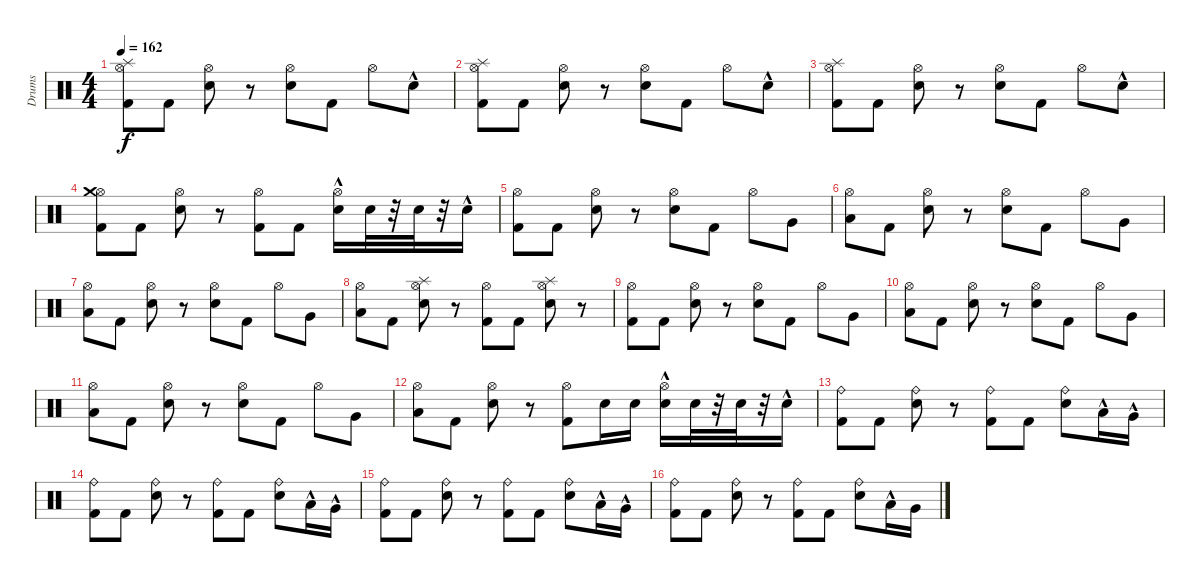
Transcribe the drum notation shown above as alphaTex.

\track ("Drums" "Drums") {instrument percussion}
\staff {score}
\articulation defaults
\ts (4 4)
\tempo 162
\clef neutral
\ks c
("Hi-Hat (open)" "Kick (hit) 2" "Splash (hit)").8{dy f} "Kick (hit) 2".8 ("Hi-Hat (open)" "Electric Snare (hit)").8 r.8 ("Hi-Hat (open)" "Electric Snare (hit)").8 "Kick (hit) 2".8 "Hi-Hat (open)".8 "Electric Snare (hit)"{hac}.8 |
("Hi-Hat (open)" "Kick (hit) 2" "Splash (hit)").8 "Kick (hit) 2".8 ("Hi-Hat (open)" "Electric Snare (hit)").8 r.8 ("Hi-Hat (open)" "Electric Snare (hit)").8 "Kick (hit) 2".8 "Hi-Hat (open)".8 "Electric Snare (hit)"{hac}.8 |
("Hi-Hat (open)" "Kick (hit) 2" "Splash (hit)").8 "Kick (hit) 2".8 ("Hi-Hat (open)" "Electric Snare (hit)").8 r.8 ("Hi-Hat (open)" "Electric Snare (hit)").8 "Kick (hit) 2".8 "Hi-Hat (open)".8 "Electric Snare (hit)"{hac}.8 |
("Hi-Hat (open)" "Kick (hit) 2" "Crash medium (hit)").8 "Kick (hit) 2".8 ("Hi-Hat (open)" "Electric Snare (hit)").8 r.8 ("Hi-Hat (open)" "Kick (hit) 2").8 "Kick (hit) 2".8 ("Hi-Hat (open)"{hac} "Electric Snare (hit)").16 "Electric Snare (hit)".32 r.32 "Electric Snare (hit)".32 r.32 "Electric Snare (hit)"{hac}.16 |
("Hi-Hat (open)" "Kick (hit) 2").8 "Kick (hit) 2".8 ("Hi-Hat (open)" "Electric Snare (hit)").8 r.8 ("Hi-Hat (open)" "Electric Snare (hit)").8 "Kick (hit) 2".8 "Hi-Hat (open)".8 "Very Low Tom (hit)".8 |
("Hi-Hat (open)" "Low Floor Tom (hit)").8 "Kick (hit) 2".8 ("Hi-Hat (open)" "Electric Snare (hit)").8 r.8 ("Hi-Hat (open)" "Electric Snare (hit)").8 "Kick (hit) 2".8 "Hi-Hat (open)".8 "Very Low Tom (hit)".8 |
("Hi-Hat (open)" "Low Floor Tom (hit)").8 "Kick (hit) 2".8 ("Hi-Hat (open)" "Electric Snare (hit)").8 r.8 ("Hi-Hat (open)" "Electric Snare (hit)").8 "Kick (hit) 2".8 "Hi-Hat (open)".8 "Very Low Tom (hit)".8 |
("Hi-Hat (open)" "Low Floor Tom (hit)").8 "Kick (hit) 2".8 ("Hi-Hat (open)" "Electric Snare (hit)" "Splash (hit)").8 r.8 ("Hi-Hat (open)" "Kick (hit) 2").8 "Kick (hit) 2".8 ("Hi-Hat (open)" "Electric Snare (hit)" "Splash (hit)").8 r.8 |
("Hi-Hat (open)" "Kick (hit) 2").8 "Kick (hit) 2".8 ("Hi-Hat (open)" "Electric Snare (hit)").8 r.8 ("Hi-Hat (open)" "Electric Snare (hit)").8 "Kick (hit) 2".8 "Hi-Hat (open)".8 "Very Low Tom (hit)".8 |
("Hi-Hat (open)" "Low Floor Tom (hit)").8 "Kick (hit) 2".8 ("Hi-Hat (open)" "Electric Snare (hit)").8 r.8 ("Hi-Hat (open)" "Electric Snare (hit)").8 "Kick (hit) 2".8 "Hi-Hat (open)".8 "Very Low Tom (hit)".8 |
("Hi-Hat (open)" "Low Floor Tom (hit)").8 "Kick (hit) 2".8 ("Hi-Hat (open)" "Electric Snare (hit)").8 r.8 ("Hi-Hat (open)" "Electric Snare (hit)").8 "Kick (hit) 2".8 "Hi-Hat (open)".8 "Very Low Tom (hit)".8 |
("Hi-Hat (open)" "Low Floor Tom (hit)").8 "Kick (hit) 2".8 ("Hi-Hat (open)" "Electric Snare (hit)").8 r.8 ("Hi-Hat (open)" "Kick (hit) 2").8 "Electric Snare (hit)".16 "Electric Snare (hit)".16 ("Hi-Hat (open)"{hac} "Electric Snare (hit)").16 "Electric Snare (hit)".32 r.32 "Electric Snare (hit)".32 r.32 "Electric Snare (hit)"{hac}.16 |
("Ride (bell)" "Kick (hit) 2").8 "Kick (hit) 2".8 ("Ride (bell)" "Electric Snare (hit)").8 r.8 ("Ride (bell)" "Kick (hit) 2").8 "Kick (hit) 2".8 ("Ride (bell)" "Electric Snare (hit)").8 "Low Tom (hit)"{hac}.16 "Very Low Tom (hit)"{hac}.16 |
("Ride (bell)" "Kick (hit) 2").8 "Kick (hit) 2".8 ("Ride (bell)" "Electric Snare (hit)").8 r.8 ("Ride (bell)" "Kick (hit) 2").8 "Kick (hit) 2".8 ("Ride (bell)" "Electric Snare (hit)").8 "Low Tom (hit)"{hac}.16 "Very Low Tom (hit)"{hac}.16 |
("Ride (bell)" "Kick (hit) 2").8 "Kick (hit) 2".8 ("Ride (bell)" "Electric Snare (hit)").8 r.8 ("Ride (bell)" "Kick (hit) 2").8 "Kick (hit) 2".8 ("Ride (bell)" "Electric Snare (hit)").8 "Low Tom (hit)"{hac}.16 "Very Low Tom (hit)"{hac}.16 |
("Ride (bell)" "Kick (hit) 2").8 "Kick (hit) 2".8 ("Ride (bell)" "Electric Snare (hit)").8 r.8 ("Ride (bell)" "Kick (hit) 2").8 "Kick (hit) 2".8 ("Ride (bell)" "Electric Snare (hit)").8 "Low Tom (hit)"{hac}.16 "Very Low Tom (hit)".16
